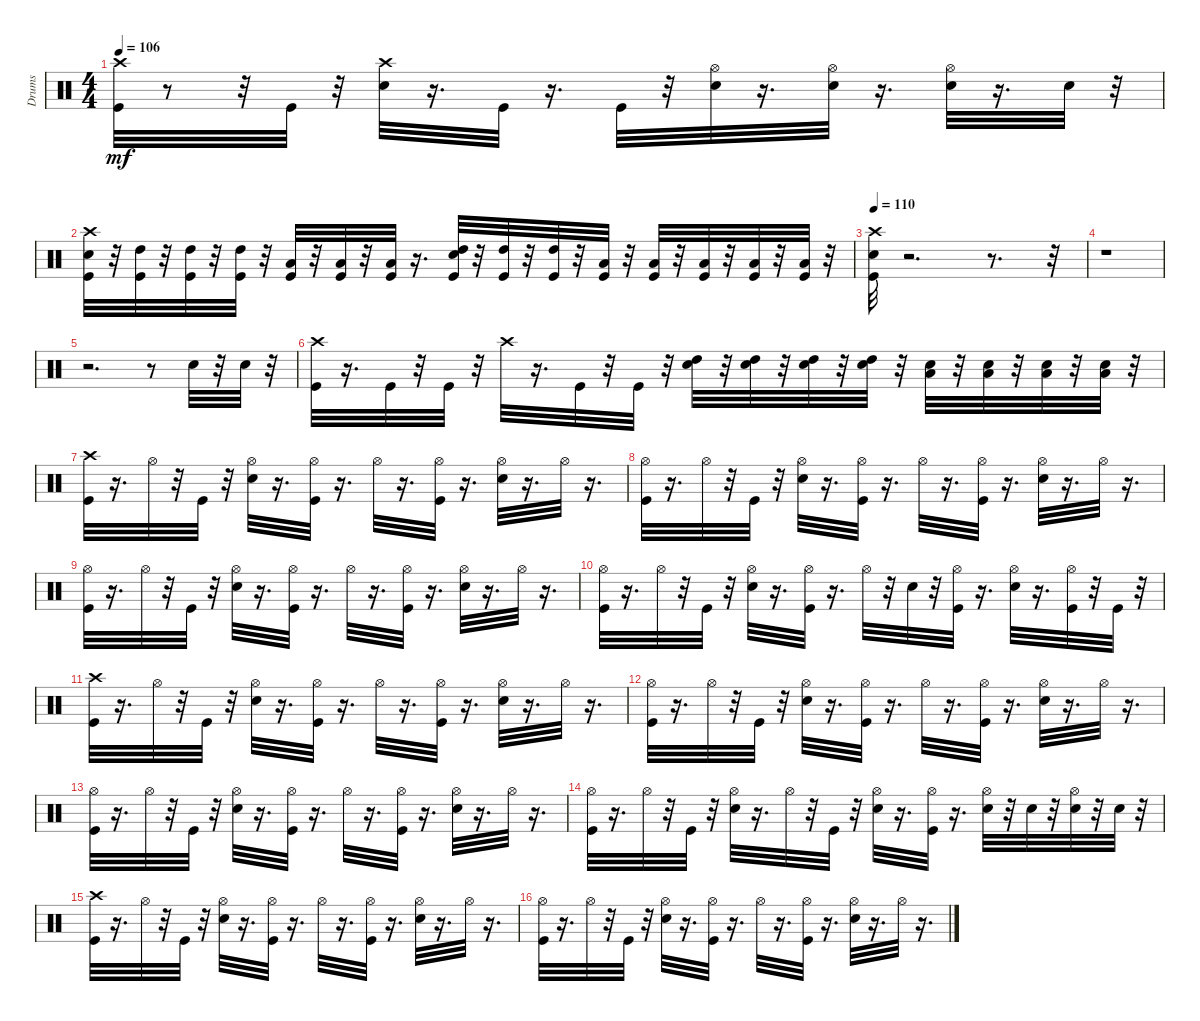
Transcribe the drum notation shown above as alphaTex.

\track ("Drums               " "Drums     ") {instrument percussion}
\staff {score}
\articulation defaults
\ts (4 4)
\tempo 106
\clef neutral
\ks c
("Crash high (hit)" "Kick (hit)").32{dy mf} r.8 r.32 "Kick (hit)".32 r.32 ("Crash high (hit)" "Snare (hit) 2").32 r.16{d} "Kick (hit)".32 r.16{d} "Kick (hit)".32 r.32 ("Snare (hit) 2" "Hi-Hat (open)").32 r.16{d} ("Snare (hit) 2" "Hi-Hat (open)").32 r.16{d} ("Hi-Hat (open)" "Snare (hit) 2").32 r.16{d} "Snare (hit) 2".32 r.32 |
("Snare (hit) 2" "Kick (hit)" "Crash high (hit)").32 r.32 ("Kick (hit)" "High Tom (hit)").32 r.32 ("Kick (hit)" "High Tom (hit)").32 r.32 ("Kick (hit)" "High Tom (hit)").32 r.32 ("Kick (hit)" "Low Tom (hit)").32 r.32 ("Kick (hit)" "Low Tom (hit)").32 r.32 ("Kick (hit)" "Low Tom (hit)").32 r.16{d} ("Snare (hit) 2" "Kick (hit)" "High Tom (hit)").32 r.32 ("Kick (hit)" "High Tom (hit)").32 r.32 ("Kick (hit)" "High Tom (hit)").32 r.32 ("Kick (hit)" "Low Tom (hit)").32 r.32 ("Kick (hit)" "Low Tom (hit)").32 r.32 ("Kick (hit)" "Low Tom (hit)").32 r.32 ("Kick (hit)" "Low Tom (hit)").32 r.32 ("Kick (hit)" "Low Tom (hit)").32 r.32 |
\tempo 110
("Crash high (hit)" "Kick (hit)" "Snare (hit) 2").32 r.2{d} r.8{d} r.32 |
r.1 |
r.2{d} r.8 "Snare (hit) 2".32 r.32 "Snare (hit) 2".32 r.32 |
("Crash high (hit)" "Kick (hit)").32 r.16{d} "Kick (hit)".32 r.32 "Kick (hit)".32 r.32 "Crash high (hit)".32 r.16{d} "Kick (hit)".32 r.32 "Kick (hit)".32 r.32 ("Snare (hit) 2" "High Tom (hit)").32 r.32 ("Snare (hit) 2" "High Tom (hit)").32 r.32 ("Snare (hit) 2" "High Tom (hit)").32 r.32 ("Snare (hit) 2" "High Tom (hit)").32 r.32 ("Snare (hit) 2" "Low Tom (hit)").32 r.32 ("Snare (hit) 2" "Low Tom (hit)").32 r.32 ("Snare (hit) 2" "Low Tom (hit)").32 r.32 ("Snare (hit) 2" "Low Tom (hit)").32 r.32 |
("Kick (hit)" "Crash high (hit)").32 r.16{d} "Hi-Hat (open)".32 r.32 "Kick (hit)".32 r.32 ("Hi-Hat (open)" "Snare (hit) 2").32 r.16{d} ("Hi-Hat (open)" "Kick (hit)").32 r.16{d} "Hi-Hat (open)".32 r.16{d} ("Hi-Hat (open)" "Kick (hit)").32 r.16{d} ("Hi-Hat (open)" "Snare (hit) 2").32 r.16{d} "Hi-Hat (open)".32 r.16{d} |
("Hi-Hat (open)" "Kick (hit)").32 r.16{d} "Hi-Hat (open)".32 r.32 "Kick (hit)".32 r.32 ("Hi-Hat (open)" "Snare (hit) 2").32 r.16{d} ("Hi-Hat (open)" "Kick (hit)").32 r.16{d} "Hi-Hat (open)".32 r.16{d} ("Hi-Hat (open)" "Kick (hit)").32 r.16{d} ("Hi-Hat (open)" "Snare (hit) 2").32 r.16{d} "Hi-Hat (open)".32 r.16{d} |
("Hi-Hat (open)" "Kick (hit)").32 r.16{d} "Hi-Hat (open)".32 r.32 "Kick (hit)".32 r.32 ("Hi-Hat (open)" "Snare (hit) 2").32 r.16{d} ("Hi-Hat (open)" "Kick (hit)").32 r.16{d} "Hi-Hat (open)".32 r.16{d} ("Hi-Hat (open)" "Kick (hit)").32 r.16{d} ("Hi-Hat (open)" "Snare (hit) 2").32 r.16{d} "Hi-Hat (open)".32 r.16{d} |
("Hi-Hat (open)" "Kick (hit)").32 r.16{d} "Hi-Hat (open)".32 r.32 "Kick (hit)".32 r.32 ("Hi-Hat (open)" "Snare (hit) 2").32 r.16{d} ("Hi-Hat (open)" "Kick (hit)").32 r.16{d} "Hi-Hat (open)".32 r.32 "Snare (hit) 2".32 r.32 ("Hi-Hat (open)" "Kick (hit)").32 r.16{d} ("Hi-Hat (open)" "Snare (hit) 2").32 r.16{d} ("Hi-Hat (open)" "Kick (hit)").32 r.32 "Kick (hit)".32 r.32 |
("Kick (hit)" "Crash high (hit)").32 r.16{d} "Hi-Hat (open)".32 r.32 "Kick (hit)".32 r.32 ("Hi-Hat (open)" "Snare (hit) 2").32 r.16{d} ("Hi-Hat (open)" "Kick (hit)").32 r.16{d} "Hi-Hat (open)".32 r.16{d} ("Hi-Hat (open)" "Kick (hit)").32 r.16{d} ("Hi-Hat (open)" "Snare (hit) 2").32 r.16{d} "Hi-Hat (open)".32 r.16{d} |
("Hi-Hat (open)" "Kick (hit)").32 r.16{d} "Hi-Hat (open)".32 r.32 "Kick (hit)".32 r.32 ("Hi-Hat (open)" "Snare (hit) 2").32 r.16{d} ("Hi-Hat (open)" "Kick (hit)").32 r.16{d} "Hi-Hat (open)".32 r.16{d} ("Hi-Hat (open)" "Kick (hit)").32 r.16{d} ("Hi-Hat (open)" "Snare (hit) 2").32 r.16{d} "Hi-Hat (open)".32 r.16{d} |
("Hi-Hat (open)" "Kick (hit)").32 r.16{d} "Hi-Hat (open)".32 r.32 "Kick (hit)".32 r.32 ("Hi-Hat (open)" "Snare (hit) 2").32 r.16{d} ("Hi-Hat (open)" "Kick (hit)").32 r.16{d} "Hi-Hat (open)".32 r.16{d} ("Hi-Hat (open)" "Kick (hit)").32 r.16{d} ("Hi-Hat (open)" "Snare (hit) 2").32 r.16{d} "Hi-Hat (open)".32 r.16{d} |
("Hi-Hat (open)" "Kick (hit)").32 r.16{d} "Hi-Hat (open)".32 r.32 "Kick (hit)".32 r.32 ("Hi-Hat (open)" "Snare (hit) 2").32 r.16{d} "Hi-Hat (open)".32 r.32 "Kick (hit)".32 r.32 ("Hi-Hat (open)" "Snare (hit) 2").32 r.16{d} ("Hi-Hat (open)" "Kick (hit)").32 r.16{d} ("Hi-Hat (open)" "Snare (hit) 2").32 r.32 "Snare (hit) 2".32 r.32 ("Hi-Hat (open)" "Snare (hit) 2").32 r.32 "Snare (hit) 2".32 r.32 |
("Kick (hit)" "Crash high (hit)").32 r.16{d} "Hi-Hat (open)".32 r.32 "Kick (hit)".32 r.32 ("Hi-Hat (open)" "Snare (hit) 2").32 r.16{d} ("Hi-Hat (open)" "Kick (hit)").32 r.16{d} "Hi-Hat (open)".32 r.16{d} ("Hi-Hat (open)" "Kick (hit)").32 r.16{d} ("Hi-Hat (open)" "Snare (hit) 2").32 r.16{d} "Hi-Hat (open)".32 r.16{d} |
("Hi-Hat (open)" "Kick (hit)").32 r.16{d} "Hi-Hat (open)".32 r.32 "Kick (hit)".32 r.32 ("Hi-Hat (open)" "Snare (hit) 2").32 r.16{d} ("Hi-Hat (open)" "Kick (hit)").32 r.16{d} "Hi-Hat (open)".32 r.16{d} ("Hi-Hat (open)" "Kick (hit)").32 r.16{d} ("Hi-Hat (open)" "Snare (hit) 2").32 r.16{d} "Hi-Hat (open)".32 r.16{d}
